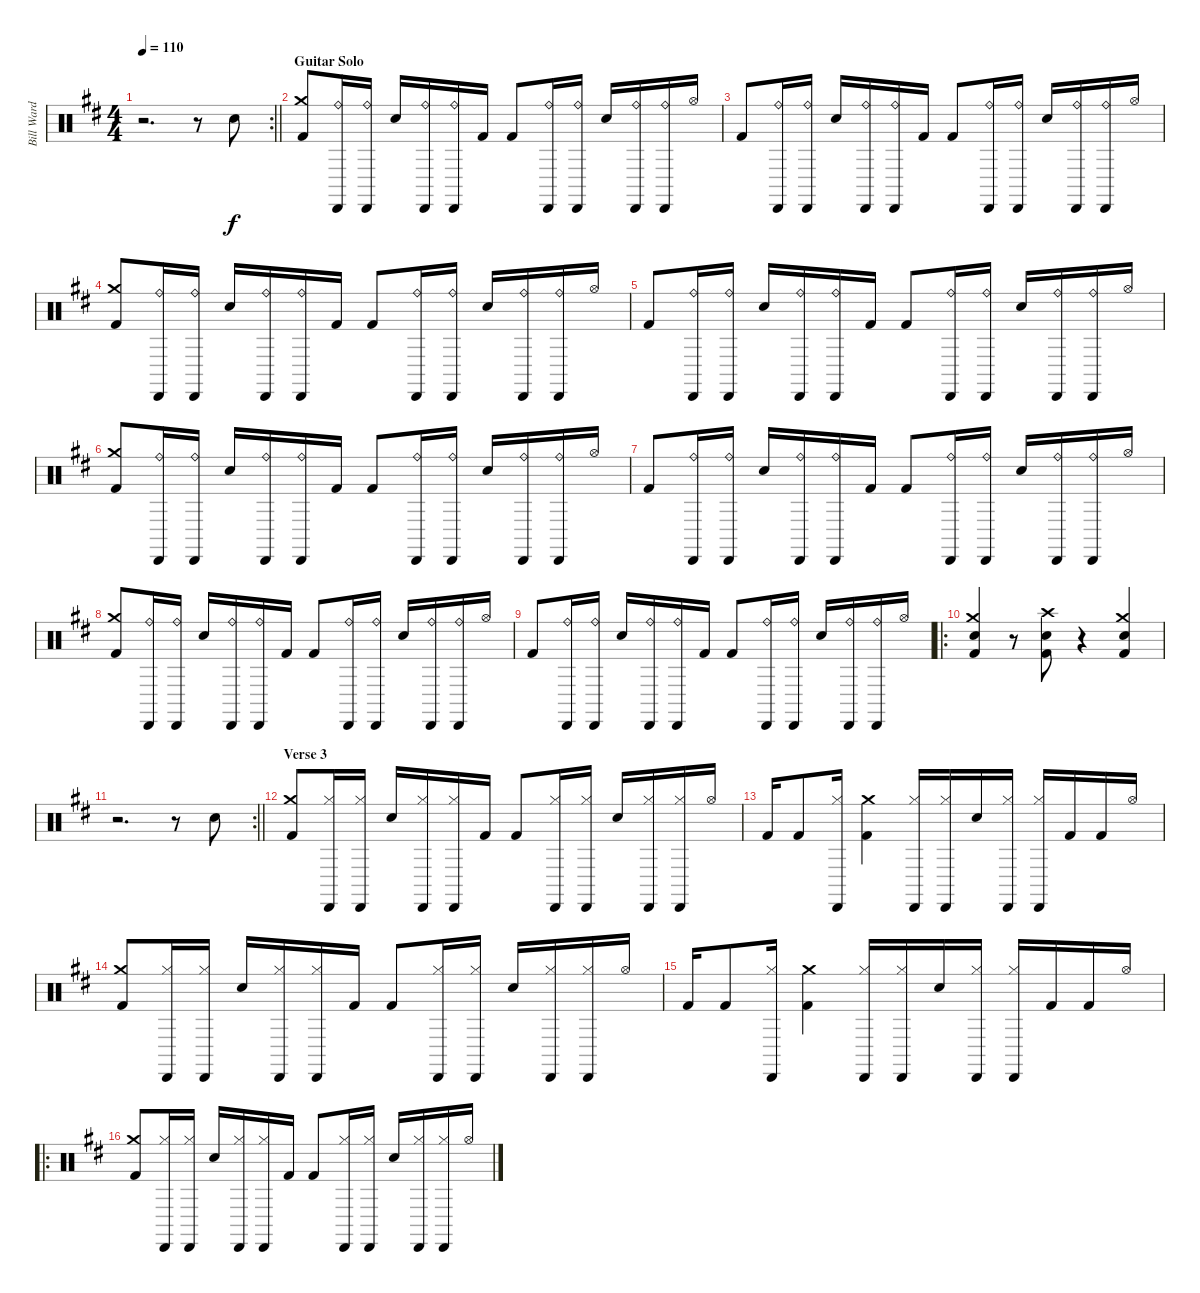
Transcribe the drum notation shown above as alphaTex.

\track ("Bill Ward" "Bill Ward") {instrument percussion}
\staff {score}
\articulation defaults
\rc 2
\ts (4 4)
\tempo 110
\clef neutral
\barLineRight lightlight
\ks d
r.2{d dy f} r.8 "Snare (hit) 2".8 |
\section ("" "Guitar Solo")
("Crash medium (hit)" "Kick (hit) 2").8 ("Cabasa (hit)" "Ride (bell)").16 ("Cabasa (hit)" "Ride (bell)").16 "Snare (hit) 2".16 ("Cabasa (hit)" "Ride (bell)").16 ("Cabasa (hit)" "Ride (bell)").16 "Kick (hit) 2".16 "Kick (hit) 2".8 ("Cabasa (hit)" "Ride (bell)").16 ("Cabasa (hit)" "Ride (bell)").16 "Snare (hit) 2".16 ("Cabasa (hit)" "Ride (bell)").16 ("Cabasa (hit)" "Ride (bell)").16 "Hi-Hat (open)".16 |
"Kick (hit) 2".8 ("Cabasa (hit)" "Ride (bell)").16 ("Cabasa (hit)" "Ride (bell)").16 "Snare (hit) 2".16 ("Cabasa (hit)" "Ride (bell)").16 ("Cabasa (hit)" "Ride (bell)").16 "Kick (hit) 2".16 "Kick (hit) 2".8 ("Cabasa (hit)" "Ride (bell)").16 ("Cabasa (hit)" "Ride (bell)").16 "Snare (hit) 2".16 ("Cabasa (hit)" "Ride (bell)").16 ("Cabasa (hit)" "Ride (bell)").16 "Hi-Hat (open)".16 |
("Crash medium (hit)" "Kick (hit) 2").8 ("Cabasa (hit)" "Ride (bell)").16 ("Cabasa (hit)" "Ride (bell)").16 "Snare (hit) 2".16 ("Cabasa (hit)" "Ride (bell)").16 ("Cabasa (hit)" "Ride (bell)").16 "Kick (hit) 2".16 "Kick (hit) 2".8 ("Cabasa (hit)" "Ride (bell)").16 ("Cabasa (hit)" "Ride (bell)").16 "Snare (hit) 2".16 ("Cabasa (hit)" "Ride (bell)").16 ("Cabasa (hit)" "Ride (bell)").16 "Hi-Hat (open)".16 |
"Kick (hit) 2".8 ("Cabasa (hit)" "Ride (bell)").16 ("Cabasa (hit)" "Ride (bell)").16 "Snare (hit) 2".16 ("Cabasa (hit)" "Ride (bell)").16 ("Cabasa (hit)" "Ride (bell)").16 "Kick (hit) 2".16 "Kick (hit) 2".8 ("Cabasa (hit)" "Ride (bell)").16 ("Cabasa (hit)" "Ride (bell)").16 "Snare (hit) 2".16 ("Cabasa (hit)" "Ride (bell)").16 ("Cabasa (hit)" "Ride (bell)").16 "Hi-Hat (open)".16 |
("Crash medium (hit)" "Kick (hit) 2").8 ("Cabasa (hit)" "Ride (bell)").16 ("Cabasa (hit)" "Ride (bell)").16 "Snare (hit) 2".16 ("Cabasa (hit)" "Ride (bell)").16 ("Cabasa (hit)" "Ride (bell)").16 "Kick (hit) 2".16 "Kick (hit) 2".8 ("Cabasa (hit)" "Ride (bell)").16 ("Cabasa (hit)" "Ride (bell)").16 "Snare (hit) 2".16 ("Cabasa (hit)" "Ride (bell)").16 ("Cabasa (hit)" "Ride (bell)").16 "Hi-Hat (open)".16 |
"Kick (hit) 2".8 ("Cabasa (hit)" "Ride (bell)").16 ("Cabasa (hit)" "Ride (bell)").16 "Snare (hit) 2".16 ("Cabasa (hit)" "Ride (bell)").16 ("Cabasa (hit)" "Ride (bell)").16 "Kick (hit) 2".16 "Kick (hit) 2".8 ("Cabasa (hit)" "Ride (bell)").16 ("Cabasa (hit)" "Ride (bell)").16 "Snare (hit) 2".16 ("Cabasa (hit)" "Ride (bell)").16 ("Cabasa (hit)" "Ride (bell)").16 "Hi-Hat (open)".16 |
("Crash medium (hit)" "Kick (hit) 2").8 ("Cabasa (hit)" "Ride (bell)").16 ("Cabasa (hit)" "Ride (bell)").16 "Snare (hit) 2".16 ("Cabasa (hit)" "Ride (bell)").16 ("Cabasa (hit)" "Ride (bell)").16 "Kick (hit) 2".16 "Kick (hit) 2".8 ("Cabasa (hit)" "Ride (bell)").16 ("Cabasa (hit)" "Ride (bell)").16 "Snare (hit) 2".16 ("Cabasa (hit)" "Ride (bell)").16 ("Cabasa (hit)" "Ride (bell)").16 "Hi-Hat (open)".16 |
"Kick (hit) 2".8 ("Cabasa (hit)" "Ride (bell)").16 ("Cabasa (hit)" "Ride (bell)").16 "Snare (hit) 2".16 ("Cabasa (hit)" "Ride (bell)").16 ("Cabasa (hit)" "Ride (bell)").16 "Kick (hit) 2".16 "Kick (hit) 2".8 ("Cabasa (hit)" "Ride (bell)").16 ("Cabasa (hit)" "Ride (bell)").16 "Snare (hit) 2".16 ("Cabasa (hit)" "Ride (bell)").16 ("Cabasa (hit)" "Ride (bell)").16 "Hi-Hat (open)".16 |
\ro
("Crash medium (hit)" "Snare (hit) 2" "Kick (hit) 2").4 r.8 ("Crash high (hit)" "Snare (hit) 2" "Kick (hit) 2").8 r.4 ("Crash medium (hit)" "Snare (hit) 2" "Kick (hit) 2").4 |
\rc 2
\barLineRight lightlight
r.2{d} r.8 "Snare (hit) 2".8 |
\section ("" "Verse 3")
("Crash medium (hit)" "Kick (hit) 2").8 ("Cabasa (hit)" "Hi-Hat (closed)").16 ("Cabasa (hit)" "Hi-Hat (closed)").16 "Snare (hit) 2".16 ("Cabasa (hit)" "Hi-Hat (closed)").16 ("Cabasa (hit)" "Hi-Hat (closed)").16 "Kick (hit) 2".16 "Kick (hit) 2".8 ("Cabasa (hit)" "Hi-Hat (closed)").16 ("Cabasa (hit)" "Hi-Hat (closed)").16 "Snare (hit) 2".16 ("Cabasa (hit)" "Hi-Hat (closed)").16 ("Cabasa (hit)" "Hi-Hat (closed)").16 "Hi-Hat (open)".16 |
"Kick (hit) 2".16 "Kick (hit) 2".8 ("Cabasa (hit)" "Hi-Hat (closed)").16 ("Crash medium (hit)" "Kick (hit) 2").4 ("Cabasa (hit)" "Hi-Hat (closed)").16 ("Cabasa (hit)" "Hi-Hat (closed)").16 "Snare (hit) 2".16 ("Cabasa (hit)" "Hi-Hat (closed)").16 ("Cabasa (hit)" "Hi-Hat (closed)").16 "Kick (hit) 2".16 "Kick (hit) 2".16 "Hi-Hat (open)".16 |
("Crash medium (hit)" "Kick (hit) 2").8 ("Cabasa (hit)" "Hi-Hat (closed)").16 ("Cabasa (hit)" "Hi-Hat (closed)").16 "Snare (hit) 2".16 ("Cabasa (hit)" "Hi-Hat (closed)").16 ("Cabasa (hit)" "Hi-Hat (closed)").16 "Kick (hit) 2".16 "Kick (hit) 2".8 ("Cabasa (hit)" "Hi-Hat (closed)").16 ("Cabasa (hit)" "Hi-Hat (closed)").16 "Snare (hit) 2".16 ("Cabasa (hit)" "Hi-Hat (closed)").16 ("Cabasa (hit)" "Hi-Hat (closed)").16 "Hi-Hat (open)".16 |
"Kick (hit) 2".16 "Kick (hit) 2".8 ("Cabasa (hit)" "Hi-Hat (closed)").16 ("Crash medium (hit)" "Kick (hit) 2").4 ("Cabasa (hit)" "Hi-Hat (closed)").16 ("Cabasa (hit)" "Hi-Hat (closed)").16 "Snare (hit) 2".16 ("Cabasa (hit)" "Hi-Hat (closed)").16 ("Cabasa (hit)" "Hi-Hat (closed)").16 "Kick (hit) 2".16 "Kick (hit) 2".16 "Hi-Hat (open)".16 |
\ro
("Crash medium (hit)" "Kick (hit) 2").8 ("Cabasa (hit)" "Hi-Hat (closed)").16 ("Cabasa (hit)" "Hi-Hat (closed)").16 "Snare (hit) 2".16 ("Cabasa (hit)" "Hi-Hat (closed)").16 ("Cabasa (hit)" "Hi-Hat (closed)").16 "Kick (hit) 2".16 "Kick (hit) 2".8 ("Cabasa (hit)" "Hi-Hat (closed)").16 ("Cabasa (hit)" "Hi-Hat (closed)").16 "Snare (hit) 2".16 ("Cabasa (hit)" "Hi-Hat (closed)").16 ("Cabasa (hit)" "Hi-Hat (closed)").16 "Hi-Hat (open)".16
